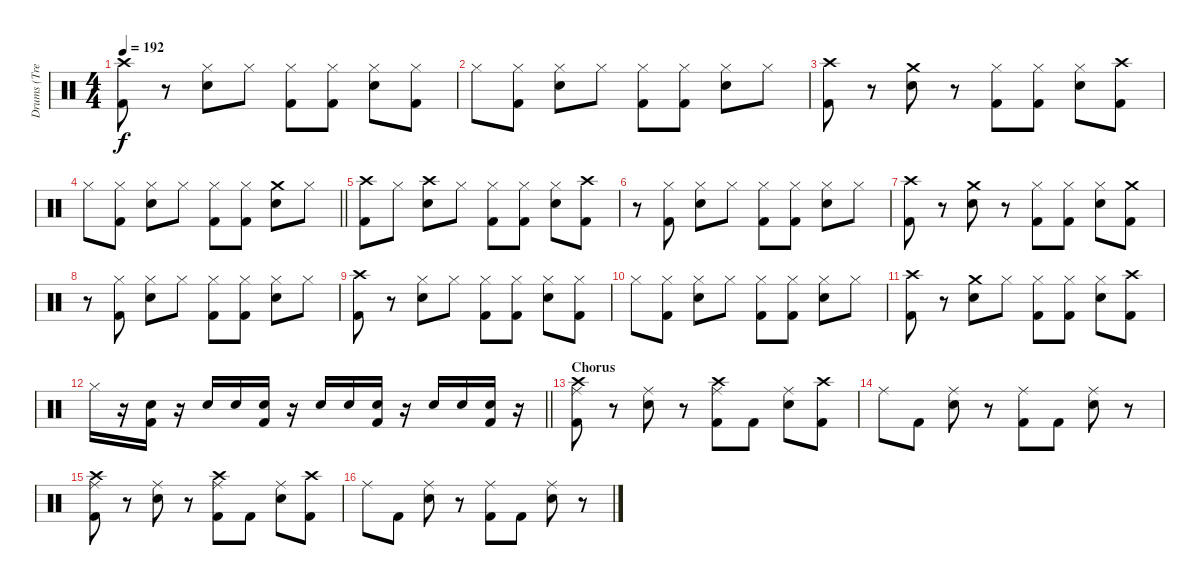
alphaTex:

\track ("Drums (Tre Cool)" "Drums (Tre") {instrument percussion}
\staff {score}
\articulation defaults
\ts (4 4)
\tempo 192
\clef neutral
\ks c
("Crash high (hit)" "Kick (hit) 2").8{dy f} r.8 ("Hi-Hat (closed)" "Snare (hit) 2").8 "Hi-Hat (closed)".8 ("Hi-Hat (closed)" "Kick (hit) 2").8 ("Hi-Hat (closed)" "Kick (hit) 2").8 ("Hi-Hat (closed)" "Snare (hit) 2").8 ("Hi-Hat (closed)" "Kick (hit) 2").8 |
"Hi-Hat (closed)".8 ("Hi-Hat (closed)" "Kick (hit) 2").8 ("Hi-Hat (closed)" "Snare (hit) 2").8 "Hi-Hat (closed)".8 ("Hi-Hat (closed)" "Kick (hit) 2").8 ("Hi-Hat (closed)" "Kick (hit) 2").8 ("Hi-Hat (closed)" "Snare (hit) 2").8 "Hi-Hat (closed)".8 |
("Crash high (hit)" "Kick (hit) 2").8 r.8 ("Crash medium (hit)" "Snare (hit) 2").8 r.8 ("Hi-Hat (closed)" "Kick (hit) 2").8 ("Hi-Hat (closed)" "Kick (hit) 2").8 ("Hi-Hat (closed)" "Snare (hit) 2").8 ("Crash high (hit)" "Kick (hit) 2").8 |
\barLineRight lightlight "Hi-Hat (closed)".8
("Hi-Hat (closed)" "Kick (hit) 2").8 ("Hi-Hat (closed)" "Snare (hit) 2").8 "Hi-Hat (closed)".8 ("Hi-Hat (closed)" "Kick (hit) 2").8 ("Hi-Hat (closed)" "Kick (hit) 2").8 ("Crash medium (hit)" "Snare (hit) 2").8 "Hi-Hat (closed)".8 |
("Crash high (hit)" "Kick (hit) 2").8 "Hi-Hat (closed)".8 ("Crash high (hit)" "Snare (hit) 2").8 "Hi-Hat (closed)".8 ("Hi-Hat (closed)" "Kick (hit) 2").8 ("Hi-Hat (closed)" "Kick (hit) 2").8 ("Hi-Hat (closed)" "Snare (hit) 2").8 ("Crash high (hit)" "Kick (hit) 2").8 |
r.8 ("Hi-Hat (closed)" "Kick (hit) 2").8 ("Hi-Hat (closed)" "Snare (hit) 2").8 "Hi-Hat (closed)".8 ("Hi-Hat (closed)" "Kick (hit) 2").8 ("Hi-Hat (closed)" "Kick (hit) 2").8 ("Hi-Hat (closed)" "Snare (hit) 2").8 "Hi-Hat (closed)".8 |
("Crash high (hit)" "Kick (hit) 2").8 r.8 ("Crash medium (hit)" "Snare (hit) 2").8 r.8 ("Hi-Hat (closed)" "Kick (hit) 2").8 ("Hi-Hat (closed)" "Kick (hit) 2").8 ("Hi-Hat (closed)" "Snare (hit) 2").8 ("Crash medium (hit)" "Kick (hit) 2").8 |
r.8 ("Hi-Hat (closed)" "Kick (hit) 2").8 ("Hi-Hat (closed)" "Snare (hit) 2").8 "Hi-Hat (closed)".8 ("Hi-Hat (closed)" "Kick (hit) 2").8 ("Hi-Hat (closed)" "Kick (hit) 2").8 ("Hi-Hat (closed)" "Snare (hit) 2").8 "Hi-Hat (closed)".8 |
("Crash high (hit)" "Kick (hit) 2").8 r.8 ("Hi-Hat (closed)" "Snare (hit) 2").8 "Hi-Hat (closed)".8 ("Hi-Hat (closed)" "Kick (hit) 2").8 ("Hi-Hat (closed)" "Kick (hit) 2").8 ("Hi-Hat (closed)" "Snare (hit) 2").8 ("Hi-Hat (closed)" "Kick (hit) 2").8 |
"Hi-Hat (closed)".8 ("Hi-Hat (closed)" "Kick (hit) 2").8 ("Hi-Hat (closed)" "Snare (hit) 2").8 "Hi-Hat (closed)".8 ("Hi-Hat (closed)" "Kick (hit) 2").8 ("Hi-Hat (closed)" "Kick (hit) 2").8 ("Hi-Hat (closed)" "Snare (hit) 2").8 "Hi-Hat (closed)".8 |
("Crash high (hit)" "Kick (hit) 2").8 r.8 ("Crash medium (hit)" "Snare (hit) 2").8 "Hi-Hat (closed)".8 ("Hi-Hat (closed)" "Kick (hit) 2").8 ("Hi-Hat (closed)" "Kick (hit) 2").8 ("Hi-Hat (closed)" "Snare (hit) 2").8 ("Crash high (hit)" "Kick (hit) 2").8 |
\barLineRight lightlight "Hi-Hat (closed)".16
r.16 ("Snare (hit) 2" "Kick (hit) 2").16 r.16 "Snare (hit) 2".16 "Snare (hit) 2".16 ("Snare (hit) 2" "Kick (hit) 2").16 r.16 "Snare (hit) 2".16 "Snare (hit) 2".16 ("Snare (hit) 2" "Kick (hit) 2").16 r.16 "Snare (hit) 2".16 "Snare (hit) 2".16 ("Snare (hit) 2" "Kick (hit) 2").16 r.16 |
\section ("" "Chorus")
("Crash high (hit)" "Ride (middle)" "Kick (hit) 2").8 r.8 ("Ride (middle)" "Snare (hit) 2").8 r.8 ("Crash high (hit)" "Ride (middle)" "Kick (hit) 2").8 "Kick (hit) 2".8 ("Ride (middle)" "Snare (hit) 2").8 ("Crash high (hit)" "Kick (hit) 2").8 |
"Ride (middle)".8 "Kick (hit) 2".8 ("Ride (middle)" "Snare (hit) 2").8 r.8 ("Ride (middle)" "Kick (hit) 2").8 "Kick (hit) 2".8 ("Ride (middle)" "Snare (hit) 2").8 r.8 |
("Crash high (hit)" "Ride (middle)" "Kick (hit) 2").8 r.8 ("Ride (middle)" "Snare (hit) 2").8 r.8 ("Crash high (hit)" "Ride (middle)" "Kick (hit) 2").8 "Kick (hit) 2".8 ("Ride (middle)" "Snare (hit) 2").8 ("Crash high (hit)" "Kick (hit) 2").8 |
"Ride (middle)".8 "Kick (hit) 2".8 ("Ride (middle)" "Snare (hit) 2").8 r.8 ("Ride (middle)" "Kick (hit) 2").8 "Kick (hit) 2".8 ("Ride (middle)" "Snare (hit) 2").8 r.8
